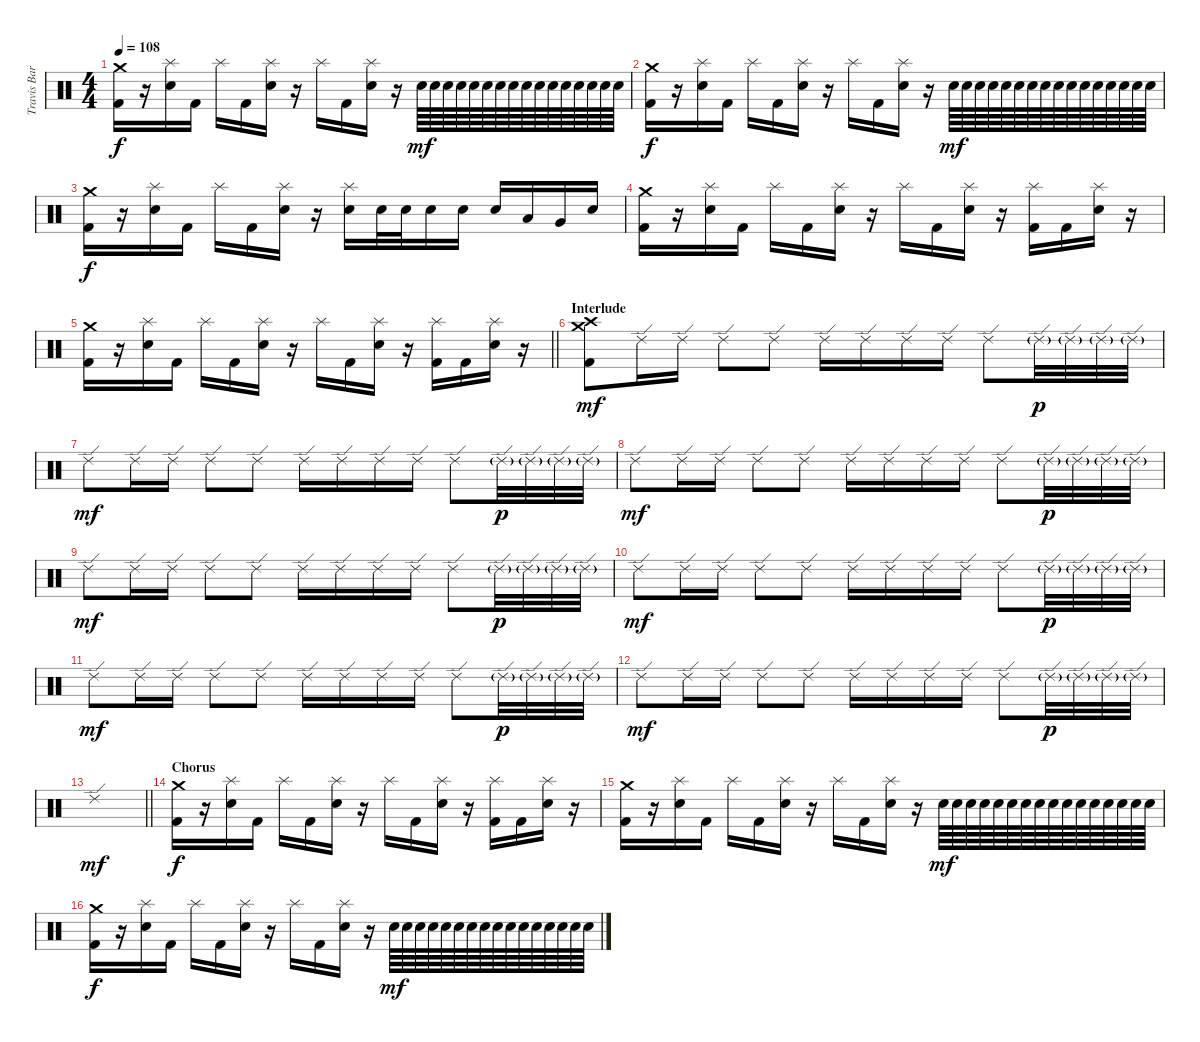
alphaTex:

\track ("Travis Barker" "Travis Bar") {instrument percussion}
\staff {score}
\articulation defaults
\ts (4 4)
\tempo 108
\clef neutral
\ks c
("Crash medium (hit)" "Kick (hit) 2").16{dy f} r.16 ("Splash (hit)" "Electric Snare (hit)").16 "Kick (hit) 2".16 "Splash (hit)".16 "Kick (hit) 2".16 ("Splash (hit)" "Electric Snare (hit)").16 r.16 "Splash (hit)".16 "Kick (hit) 2".16 ("Splash (hit)" "Electric Snare (hit)").16 r.16 "Electric Snare (hit)".64{dy mf} "Electric Snare (hit)".64 "Electric Snare (hit)".64 "Electric Snare (hit)".64 "Electric Snare (hit)".64 "Electric Snare (hit)".64 "Electric Snare (hit)".64 "Electric Snare (hit)".64 "Electric Snare (hit)".64 "Electric Snare (hit)".64 "Electric Snare (hit)".64 "Electric Snare (hit)".64 "Electric Snare (hit)".64 "Electric Snare (hit)".64 "Electric Snare (hit)".64 "Electric Snare (hit)".64 |
("Crash medium (hit)" "Kick (hit) 2").16{dy f} r.16 ("Splash (hit)" "Electric Snare (hit)").16 "Kick (hit) 2".16 "Splash (hit)".16 "Kick (hit) 2".16 ("Splash (hit)" "Electric Snare (hit)").16 r.16 "Splash (hit)".16 "Kick (hit) 2".16 ("Splash (hit)" "Electric Snare (hit)").16 r.16 "Electric Snare (hit)".64{dy mf} "Electric Snare (hit)".64 "Electric Snare (hit)".64 "Electric Snare (hit)".64 "Electric Snare (hit)".64 "Electric Snare (hit)".64 "Electric Snare (hit)".64 "Electric Snare (hit)".64 "Electric Snare (hit)".64 "Electric Snare (hit)".64 "Electric Snare (hit)".64 "Electric Snare (hit)".64 "Electric Snare (hit)".64 "Electric Snare (hit)".64 "Electric Snare (hit)".64 "Electric Snare (hit)".64 |
("Crash medium (hit)" "Kick (hit) 2").16{dy f} r.16 ("Splash (hit)" "Electric Snare (hit)").16 "Kick (hit) 2".16 "Splash (hit)".16 "Kick (hit) 2".16 ("Splash (hit)" "Electric Snare (hit)").16 r.16 ("Splash (hit)" "Electric Snare (hit)").16 "Electric Snare (hit)".32 "Electric Snare (hit)".32 "Electric Snare (hit)".16 "Electric Snare (hit)".16 "Electric Snare (hit)".16 "Low Tom (hit)".16 "Very Low Tom (hit)".16 "Electric Snare (hit)".16 |
("Crash medium (hit)" "Kick (hit) 2").16 r.16 ("Splash (hit)" "Electric Snare (hit)").16 "Kick (hit) 2".16 "Splash (hit)".16 "Kick (hit) 2".16 ("Splash (hit)" "Electric Snare (hit)").16 r.16 "Splash (hit)".16 "Kick (hit) 2".16 ("Splash (hit)" "Electric Snare (hit)").16 r.16 ("Splash (hit)" "Kick (hit) 2").16 "Kick (hit) 2".16 ("Splash (hit)" "Electric Snare (hit)").16 r.16 |
\barLineRight lightlight
("Crash medium (hit)" "Kick (hit) 2").16 r.16 ("Splash (hit)" "Electric Snare (hit)").16 "Kick (hit) 2".16 "Splash (hit)".16 "Kick (hit) 2".16 ("Splash (hit)" "Electric Snare (hit)").16 r.16 "Splash (hit)".16 "Kick (hit) 2".16 ("Splash (hit)" "Electric Snare (hit)").16 r.16 ("Splash (hit)" "Kick (hit) 2").16 "Kick (hit) 2".16 ("Splash (hit)" "Electric Snare (hit)").16 r.16 |
\section ("" "Interlude")
("Crash medium (hit)" "Crash high (hit)" "Kick (hit) 2").8{dy mf} "Ride (edge) 2".16 "Ride (edge) 2".16 "Ride (edge) 2".8 "Ride (edge) 2".8 "Ride (edge) 2".16 "Ride (edge) 2".16 "Ride (edge) 2".16 "Ride (edge) 2".16 "Ride (edge) 2".8 "Ride (edge) 2"{g}.32{dy p} "Ride (edge) 2"{g}.32 "Ride (edge) 2"{g}.32 "Ride (edge) 2"{g}.32 |
"Ride (edge) 2".8{dy mf} "Ride (edge) 2".16 "Ride (edge) 2".16 "Ride (edge) 2".8 "Ride (edge) 2".8 "Ride (edge) 2".16 "Ride (edge) 2".16 "Ride (edge) 2".16 "Ride (edge) 2".16 "Ride (edge) 2".8 "Ride (edge) 2"{g}.32{dy p} "Ride (edge) 2"{g}.32 "Ride (edge) 2"{g}.32 "Ride (edge) 2"{g}.32 |
"Ride (edge) 2".8{dy mf} "Ride (edge) 2".16 "Ride (edge) 2".16 "Ride (edge) 2".8 "Ride (edge) 2".8 "Ride (edge) 2".16 "Ride (edge) 2".16 "Ride (edge) 2".16 "Ride (edge) 2".16 "Ride (edge) 2".8 "Ride (edge) 2"{g}.32{dy p} "Ride (edge) 2"{g}.32 "Ride (edge) 2"{g}.32 "Ride (edge) 2"{g}.32 |
"Ride (edge) 2".8{dy mf} "Ride (edge) 2".16 "Ride (edge) 2".16 "Ride (edge) 2".8 "Ride (edge) 2".8 "Ride (edge) 2".16 "Ride (edge) 2".16 "Ride (edge) 2".16 "Ride (edge) 2".16 "Ride (edge) 2".8 "Ride (edge) 2"{g}.32{dy p} "Ride (edge) 2"{g}.32 "Ride (edge) 2"{g}.32 "Ride (edge) 2"{g}.32 |
"Ride (edge) 2".8{dy mf} "Ride (edge) 2".16 "Ride (edge) 2".16 "Ride (edge) 2".8 "Ride (edge) 2".8 "Ride (edge) 2".16 "Ride (edge) 2".16 "Ride (edge) 2".16 "Ride (edge) 2".16 "Ride (edge) 2".8 "Ride (edge) 2"{g}.32{dy p} "Ride (edge) 2"{g}.32 "Ride (edge) 2"{g}.32 "Ride (edge) 2"{g}.32 |
"Ride (edge) 2".8{dy mf} "Ride (edge) 2".16 "Ride (edge) 2".16 "Ride (edge) 2".8 "Ride (edge) 2".8 "Ride (edge) 2".16 "Ride (edge) 2".16 "Ride (edge) 2".16 "Ride (edge) 2".16 "Ride (edge) 2".8 "Ride (edge) 2"{g}.32{dy p} "Ride (edge) 2"{g}.32 "Ride (edge) 2"{g}.32 "Ride (edge) 2"{g}.32 |
"Ride (edge) 2".8{dy mf} "Ride (edge) 2".16 "Ride (edge) 2".16 "Ride (edge) 2".8 "Ride (edge) 2".8 "Ride (edge) 2".16 "Ride (edge) 2".16 "Ride (edge) 2".16 "Ride (edge) 2".16 "Ride (edge) 2".8 "Ride (edge) 2"{g}.32{dy p} "Ride (edge) 2"{g}.32 "Ride (edge) 2"{g}.32 "Ride (edge) 2"{g}.32 |
\barLineRight lightlight "Ride (edge) 2".1{dy mf}
|
\section ("" "Chorus")
("Crash medium (hit)" "Kick (hit) 2").16{dy f} r.16 ("Splash (hit)" "Electric Snare (hit)").16 "Kick (hit) 2".16 "Splash (hit)".16 "Kick (hit) 2".16 ("Splash (hit)" "Electric Snare (hit)").16 r.16 "Splash (hit)".16 "Kick (hit) 2".16 ("Splash (hit)" "Electric Snare (hit)").16 r.16 ("Splash (hit)" "Kick (hit) 2").16 "Kick (hit) 2".16 ("Splash (hit)" "Electric Snare (hit)").16 r.16 |
("Crash medium (hit)" "Kick (hit) 2").16 r.16 ("Splash (hit)" "Electric Snare (hit)").16 "Kick (hit) 2".16 "Splash (hit)".16 "Kick (hit) 2".16 ("Splash (hit)" "Electric Snare (hit)").16 r.16 "Splash (hit)".16 "Kick (hit) 2".16 ("Splash (hit)" "Electric Snare (hit)").16 r.16 "Electric Snare (hit)".64{dy mf} "Electric Snare (hit)".64 "Electric Snare (hit)".64 "Electric Snare (hit)".64 "Electric Snare (hit)".64 "Electric Snare (hit)".64 "Electric Snare (hit)".64 "Electric Snare (hit)".64 "Electric Snare (hit)".64 "Electric Snare (hit)".64 "Electric Snare (hit)".64 "Electric Snare (hit)".64 "Electric Snare (hit)".64 "Electric Snare (hit)".64 "Electric Snare (hit)".64 "Electric Snare (hit)".64 |
("Crash medium (hit)" "Kick (hit) 2").16{dy f} r.16 ("Splash (hit)" "Electric Snare (hit)").16 "Kick (hit) 2".16 "Splash (hit)".16 "Kick (hit) 2".16 ("Splash (hit)" "Electric Snare (hit)").16 r.16 "Splash (hit)".16 "Kick (hit) 2".16 ("Splash (hit)" "Electric Snare (hit)").16 r.16 "Electric Snare (hit)".64{dy mf} "Electric Snare (hit)".64 "Electric Snare (hit)".64 "Electric Snare (hit)".64 "Electric Snare (hit)".64 "Electric Snare (hit)".64 "Electric Snare (hit)".64 "Electric Snare (hit)".64 "Electric Snare (hit)".64 "Electric Snare (hit)".64 "Electric Snare (hit)".64 "Electric Snare (hit)".64 "Electric Snare (hit)".64 "Electric Snare (hit)".64 "Electric Snare (hit)".64 "Electric Snare (hit)".64
